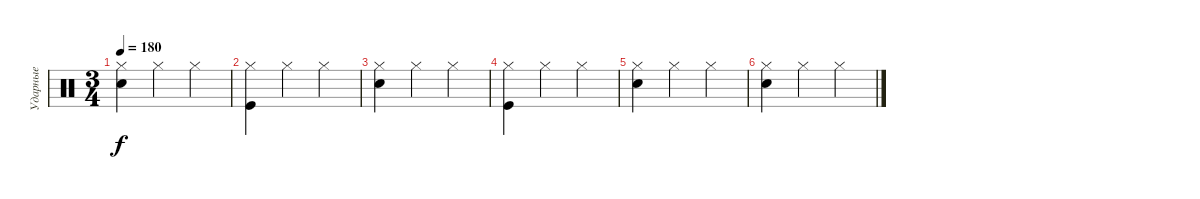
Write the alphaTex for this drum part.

\track ("Ударные" "Ударные") {instrument percussion}
\staff {score}
\articulation defaults
\ts (3 4)
\tempo 180
\clef neutral
\ks c
("Snare (hit) 2" "Hi-Hat (closed)").4{dy f} "Hi-Hat (closed)".4 "Hi-Hat (closed)".4 |
("Kick (hit)" "Hi-Hat (closed)").4 "Hi-Hat (closed)".4 "Hi-Hat (closed)".4 |
("Snare (hit) 2" "Hi-Hat (closed)").4 "Hi-Hat (closed)".4 "Hi-Hat (closed)".4 |
("Kick (hit)" "Hi-Hat (closed)").4 "Hi-Hat (closed)".4 "Hi-Hat (closed)".4 |
("Snare (hit) 2" "Hi-Hat (closed)").4 "Hi-Hat (closed)".4 "Hi-Hat (closed)".4 |
("Snare (hit) 2" "Hi-Hat (closed)").4 "Hi-Hat (closed)".4 "Hi-Hat (closed)".4
